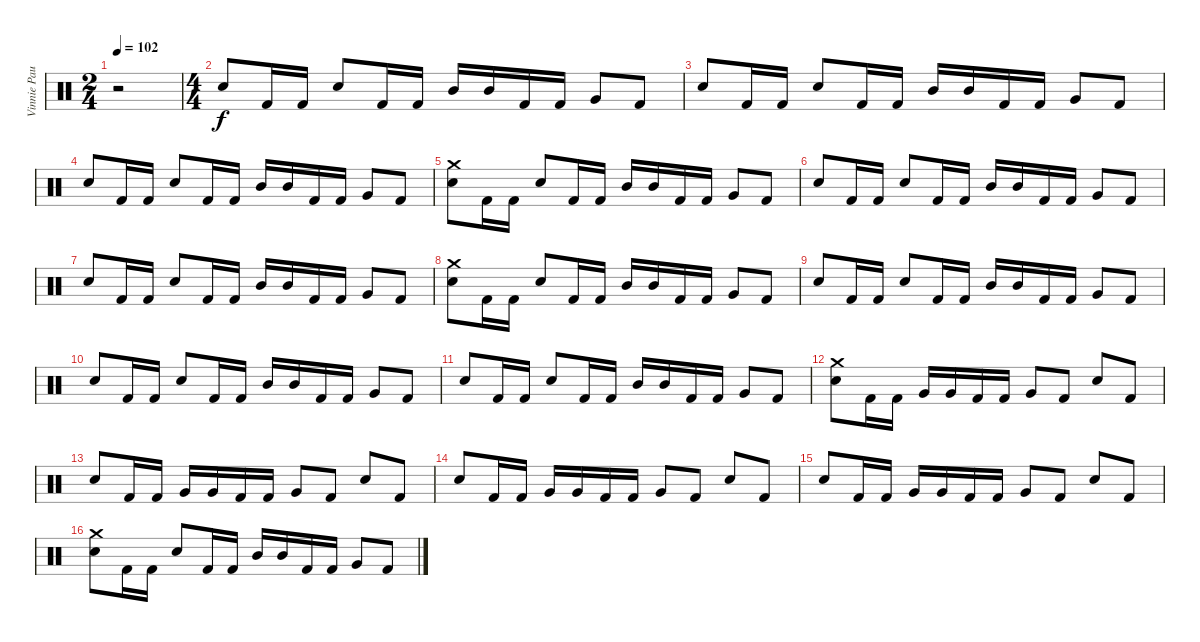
\track ("Vinnie Paul" "Vinnie Pau") {instrument percussion}
\staff {score}
\articulation defaults
\ts (2 4)
\tempo 102
\clef neutral
\ks c
r.2{dy f volume 4} |
\ts (4 4)
"Snare (hit) 2".8{volume 8} "Kick (hit) 2".16 "Kick (hit) 2".16 "Snare (hit) 2".8 "Kick (hit) 2".16 "Kick (hit) 2".16 "Mid Tom (hit)".16 "Mid Tom (hit)".16 "Kick (hit) 2".16 "Kick (hit) 2".16 "Very Low Tom (hit)".8 "Kick (hit) 2".8 |
"Snare (hit) 2".8 "Kick (hit) 2".16 "Kick (hit) 2".16 "Snare (hit) 2".8 "Kick (hit) 2".16 "Kick (hit) 2".16 "Mid Tom (hit)".16 "Mid Tom (hit)".16 "Kick (hit) 2".16 "Kick (hit) 2".16 "Very Low Tom (hit)".8 "Kick (hit) 2".8 |
"Snare (hit) 2".8{volume 12} "Kick (hit) 2".16 "Kick (hit) 2".16 "Snare (hit) 2".8 "Kick (hit) 2".16 "Kick (hit) 2".16 "Mid Tom (hit)".16 "Mid Tom (hit)".16 "Kick (hit) 2".16 "Kick (hit) 2".16 "Very Low Tom (hit)".8 "Kick (hit) 2".8 |
("Crash medium (hit)" "Snare (hit) 2").8 "Kick (hit) 2".16 "Kick (hit) 2".16 "Snare (hit) 2".8 "Kick (hit) 2".16 "Kick (hit) 2".16 "Mid Tom (hit)".16 "Mid Tom (hit)".16 "Kick (hit) 2".16 "Kick (hit) 2".16 "Very Low Tom (hit)".8 "Kick (hit) 2".8 |
"Snare (hit) 2".8{volume 16} "Kick (hit) 2".16 "Kick (hit) 2".16 "Snare (hit) 2".8 "Kick (hit) 2".16 "Kick (hit) 2".16 "Mid Tom (hit)".16 "Mid Tom (hit)".16 "Kick (hit) 2".16 "Kick (hit) 2".16 "Very Low Tom (hit)".8 "Kick (hit) 2".8 |
"Snare (hit) 2".8 "Kick (hit) 2".16 "Kick (hit) 2".16 "Snare (hit) 2".8 "Kick (hit) 2".16 "Kick (hit) 2".16 "Mid Tom (hit)".16 "Mid Tom (hit)".16 "Kick (hit) 2".16 "Kick (hit) 2".16 "Very Low Tom (hit)".8 "Kick (hit) 2".8 |
("Crash medium (hit)" "Snare (hit) 2").8 "Kick (hit) 2".16 "Kick (hit) 2".16 "Snare (hit) 2".8 "Kick (hit) 2".16 "Kick (hit) 2".16 "Mid Tom (hit)".16 "Mid Tom (hit)".16 "Kick (hit) 2".16 "Kick (hit) 2".16 "Very Low Tom (hit)".8 "Kick (hit) 2".8 |
"Snare (hit) 2".8 "Kick (hit) 2".16 "Kick (hit) 2".16 "Snare (hit) 2".8 "Kick (hit) 2".16 "Kick (hit) 2".16 "Mid Tom (hit)".16 "Mid Tom (hit)".16 "Kick (hit) 2".16 "Kick (hit) 2".16 "Very Low Tom (hit)".8 "Kick (hit) 2".8 |
"Snare (hit) 2".8 "Kick (hit) 2".16 "Kick (hit) 2".16 "Snare (hit) 2".8 "Kick (hit) 2".16 "Kick (hit) 2".16 "Mid Tom (hit)".16 "Mid Tom (hit)".16 "Kick (hit) 2".16 "Kick (hit) 2".16 "Very Low Tom (hit)".8 "Kick (hit) 2".8 |
"Snare (hit) 2".8 "Kick (hit) 2".16 "Kick (hit) 2".16 "Snare (hit) 2".8 "Kick (hit) 2".16 "Kick (hit) 2".16 "Mid Tom (hit)".16 "Mid Tom (hit)".16 "Kick (hit) 2".16 "Kick (hit) 2".16 "Very Low Tom (hit)".8 "Kick (hit) 2".8 |
("Crash medium (hit)" "Snare (hit) 2").8 "Kick (hit) 2".16 "Kick (hit) 2".16 "Very Low Tom (hit)".16 "Very Low Tom (hit)".16 "Kick (hit) 2".16 "Kick (hit) 2".16 "Very Low Tom (hit)".8 "Kick (hit) 2".8 "Snare (hit) 2".8 "Kick (hit) 2".8 |
"Snare (hit) 2".8 "Kick (hit) 2".16 "Kick (hit) 2".16 "Very Low Tom (hit)".16 "Very Low Tom (hit)".16 "Kick (hit) 2".16 "Kick (hit) 2".16 "Very Low Tom (hit)".8 "Kick (hit) 2".8 "Snare (hit) 2".8 "Kick (hit) 2".8 |
"Snare (hit) 2".8 "Kick (hit) 2".16 "Kick (hit) 2".16 "Very Low Tom (hit)".16 "Very Low Tom (hit)".16 "Kick (hit) 2".16 "Kick (hit) 2".16 "Very Low Tom (hit)".8 "Kick (hit) 2".8 "Snare (hit) 2".8 "Kick (hit) 2".8 |
"Snare (hit) 2".8 "Kick (hit) 2".16 "Kick (hit) 2".16 "Very Low Tom (hit)".16 "Very Low Tom (hit)".16 "Kick (hit) 2".16 "Kick (hit) 2".16 "Very Low Tom (hit)".8 "Kick (hit) 2".8 "Snare (hit) 2".8 "Kick (hit) 2".8 |
("Crash medium (hit)" "Snare (hit) 2").8 "Kick (hit) 2".16 "Kick (hit) 2".16 "Snare (hit) 2".8 "Kick (hit) 2".16 "Kick (hit) 2".16 "Mid Tom (hit)".16 "Mid Tom (hit)".16 "Kick (hit) 2".16 "Kick (hit) 2".16 "Very Low Tom (hit)".8 "Kick (hit) 2".8
